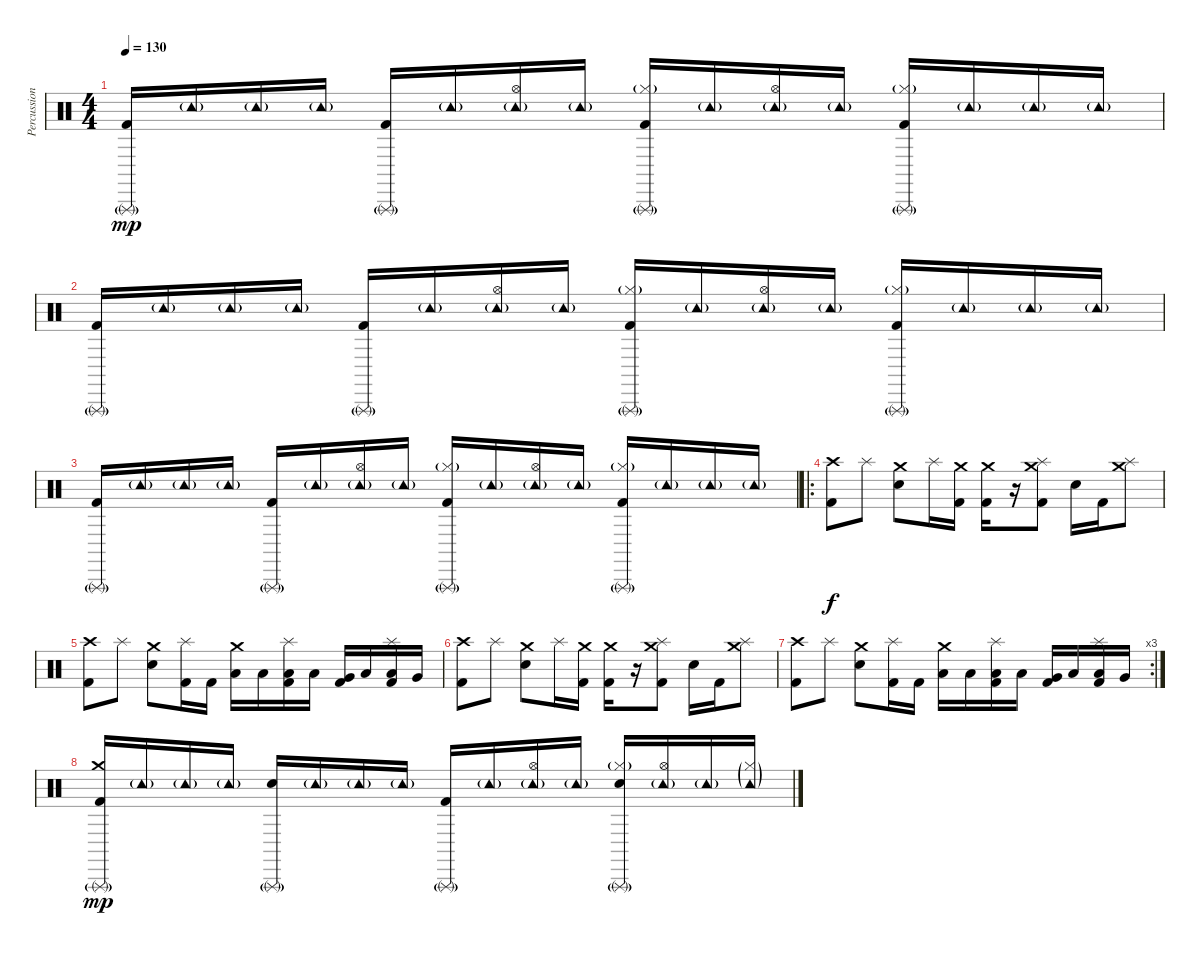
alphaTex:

\track ("Percussion" "Percussion") {instrument percussion}
\staff {score}
\articulation defaults
\ts (4 4)
\tempo 130
\clef neutral
\ks c
("Triangle (rnute)"{g} "Kick (hit) 2").16{dy mp} "Tambourine (hit)"{g}.16 "Tambourine (hit)"{g}.16 "Tambourine (hit)"{g}.16 ("Triangle (rnute)"{g} "Kick (hit) 2").16 "Tambourine (hit)"{g}.16 ("Hi-Hat (open)" "Tambourine (hit)"{g}).16 "Tambourine (hit)"{g}.16 ("Hi-Hat (closed)"{g} "Triangle (rnute)"{g} "Kick (hit) 2").16 "Tambourine (hit)"{g}.16 ("Hi-Hat (open)" "Tambourine (hit)"{g}).16 "Tambourine (hit)"{g}.16 ("Hi-Hat (closed)"{g} "Triangle (rnute)"{g} "Kick (hit) 2").16 "Tambourine (hit)"{g}.16 "Tambourine (hit)"{g}.16 "Tambourine (hit)"{g}.16 |
("Triangle (rnute)"{g} "Kick (hit) 2").16 "Tambourine (hit)"{g}.16 "Tambourine (hit)"{g}.16 "Tambourine (hit)"{g}.16 ("Triangle (rnute)"{g} "Kick (hit) 2").16 "Tambourine (hit)"{g}.16 ("Hi-Hat (open)" "Tambourine (hit)"{g}).16 "Tambourine (hit)"{g}.16 ("Hi-Hat (closed)"{g} "Triangle (rnute)"{g} "Kick (hit) 2").16 "Tambourine (hit)"{g}.16 ("Hi-Hat (open)" "Tambourine (hit)"{g}).16 "Tambourine (hit)"{g}.16 ("Hi-Hat (closed)"{g} "Triangle (rnute)"{g} "Kick (hit) 2").16 "Tambourine (hit)"{g}.16 "Tambourine (hit)"{g}.16 "Tambourine (hit)"{g}.16 |
("Triangle (rnute)"{g} "Kick (hit) 2").16 "Tambourine (hit)"{g}.16 "Tambourine (hit)"{g}.16 "Tambourine (hit)"{g}.16 ("Triangle (rnute)"{g} "Kick (hit) 2").16 "Tambourine (hit)"{g}.16 ("Hi-Hat (open)" "Tambourine (hit)"{g}).16 "Tambourine (hit)"{g}.16 ("Hi-Hat (closed)"{g} "Triangle (rnute)"{g} "Kick (hit) 2").16 "Tambourine (hit)"{g}.16 ("Hi-Hat (open)" "Tambourine (hit)"{g}).16 "Tambourine (hit)"{g}.16 ("Hi-Hat (closed)"{g} "Triangle (rnute)"{g} "Kick (hit) 2").16 "Tambourine (hit)"{g}.16 "Tambourine (hit)"{g}.16 "Tambourine (hit)"{g}.16 |
\ro
("Crash high (hit)" "Kick (hit) 2").8{dy f} "Splash (hit)".8 ("Crash medium (hit)" "Electric Snare (hit)").8 "Splash (hit)".16 ("Crash medium (hit)" "Kick (hit) 2").16 ("Crash medium (hit)" "Kick (hit) 2").16 r.16 ("Crash medium (hit)" "Splash (hit)" "Kick (hit) 2").8 "Electric Snare (hit)".16 "Kick (hit) 2".16 ("Crash medium (hit)" "Splash (hit)").8 |
("Crash high (hit)" "Kick (hit) 2").8 "Splash (hit)".8 ("Crash medium (hit)" "Electric Snare (hit)").8 ("Splash (hit)" "Kick (hit) 2").16 "Kick (hit) 2".16 ("Crash medium (hit)" "Low Floor Tom (hit)").16 "Low Floor Tom (hit)".16 ("Splash (hit)" "Low Floor Tom (hit)" "Kick (hit) 2").16 "Low Tom (hit)".16 ("Very Low Tom (hit)" "Kick (hit) 2").16 "Low Floor Tom (hit)".16 ("Splash (hit)" "Low Tom (hit)" "Kick (hit) 2").16 "Very Low Tom (hit)".16 |
("Crash high (hit)" "Kick (hit) 2").8 "Splash (hit)".8 ("Crash medium (hit)" "Electric Snare (hit)").8 "Splash (hit)".16 ("Crash medium (hit)" "Kick (hit) 2").16 ("Crash medium (hit)" "Kick (hit) 2").16 r.16 ("Crash medium (hit)" "Splash (hit)" "Kick (hit) 2").8 "Electric Snare (hit)".16 "Kick (hit) 2".16 ("Crash medium (hit)" "Splash (hit)").8 |
\rc 3
("Crash high (hit)" "Kick (hit) 2").8 "Splash (hit)".8 ("Crash medium (hit)" "Electric Snare (hit)").8 ("Splash (hit)" "Kick (hit) 2").16 "Kick (hit) 2".16 ("Crash medium (hit)" "Low Floor Tom (hit)").16 "Low Floor Tom (hit)".16 ("Splash (hit)" "Low Floor Tom (hit)" "Kick (hit) 2").16 "Low Tom (hit)".16 ("Very Low Tom (hit)" "Kick (hit) 2").16 "Low Floor Tom (hit)".16 ("Splash (hit)" "Low Tom (hit)" "Kick (hit) 2").16 "Very Low Tom (hit)".16 |
("Crash medium (hit)" "Triangle (rnute)"{g} "Kick (hit) 2").16{dy mp} "Tambourine (hit)"{g}.16 "Tambourine (hit)"{g}.16 "Tambourine (hit)"{g}.16 ("Triangle (rnute)"{g} "Electric Snare (hit)").16 "Tambourine (hit)"{g}.16 "Tambourine (hit)"{g}.16 "Tambourine (hit)"{g}.16 ("Triangle (rnute)"{g} "Kick (hit) 2").16 "Tambourine (hit)"{g}.16 ("Hi-Hat (open)" "Tambourine (hit)"{g}).16 "Tambourine (hit)"{g}.16 ("Hi-Hat (closed)"{g} "Triangle (rnute)"{g} "Electric Snare (hit)").16 ("Hi-Hat (open)" "Tambourine (hit)"{g}).16 "Tambourine (hit)"{g}.16 ("Hi-Hat (closed)"{g} "Tambourine (hit)"{g}).16
